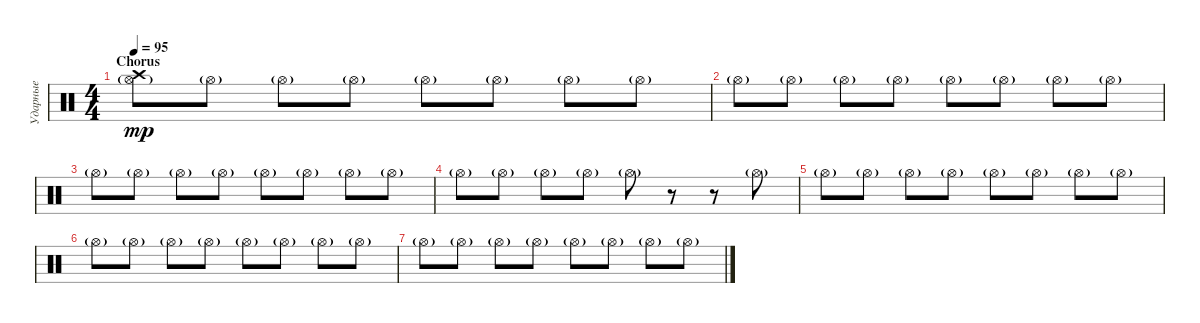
\track ("Ударные" "Ударные") {instrument percussion}
\staff {score}
\articulation defaults
\ts (4 4)
\section ("" "Chorus")
\tempo 95
\clef neutral
\ks c
("Hi-Hat (open)"{g} "Crash high (hit)").8{dy mp} "Hi-Hat (open)"{g}.8 "Hi-Hat (open)"{g}.8 "Hi-Hat (open)"{g}.8 "Hi-Hat (open)"{g}.8 "Hi-Hat (open)"{g}.8 "Hi-Hat (open)"{g}.8 "Hi-Hat (open)"{g}.8 |
"Hi-Hat (open)"{g}.8 "Hi-Hat (open)"{g}.8 "Hi-Hat (open)"{g}.8 "Hi-Hat (open)"{g}.8 "Hi-Hat (open)"{g}.8 "Hi-Hat (open)"{g}.8 "Hi-Hat (open)"{g}.8 "Hi-Hat (open)"{g}.8 |
"Hi-Hat (open)"{g}.8 "Hi-Hat (open)"{g}.8 "Hi-Hat (open)"{g}.8 "Hi-Hat (open)"{g}.8 "Hi-Hat (open)"{g}.8 "Hi-Hat (open)"{g}.8 "Hi-Hat (open)"{g}.8 "Hi-Hat (open)"{g}.8 |
"Hi-Hat (open)"{g}.8 "Hi-Hat (open)"{g}.8 "Hi-Hat (open)"{g}.8 "Hi-Hat (open)"{g}.8 "Hi-Hat (open)"{g}.8 r.8 r.8 "Hi-Hat (open)"{g}.8 |
"Hi-Hat (open)"{g}.8 "Hi-Hat (open)"{g}.8 "Hi-Hat (open)"{g}.8 "Hi-Hat (open)"{g}.8 "Hi-Hat (open)"{g}.8 "Hi-Hat (open)"{g}.8 "Hi-Hat (open)"{g}.8 "Hi-Hat (open)"{g}.8 |
"Hi-Hat (open)"{g}.8 "Hi-Hat (open)"{g}.8 "Hi-Hat (open)"{g}.8 "Hi-Hat (open)"{g}.8 "Hi-Hat (open)"{g}.8 "Hi-Hat (open)"{g}.8 "Hi-Hat (open)"{g}.8 "Hi-Hat (open)"{g}.8 |
"Hi-Hat (open)"{g}.8 "Hi-Hat (open)"{g}.8 "Hi-Hat (open)"{g}.8 "Hi-Hat (open)"{g}.8 "Hi-Hat (open)"{g}.8 "Hi-Hat (open)"{g}.8 "Hi-Hat (open)"{g}.8 "Hi-Hat (open)"{g}.8
